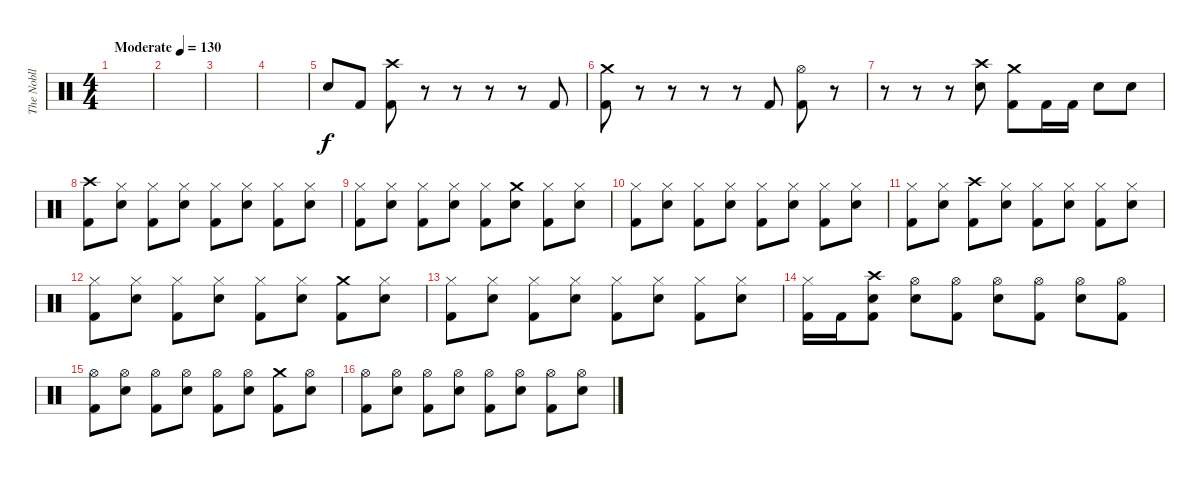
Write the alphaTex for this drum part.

\track ("The Nobll" "The Nobll") {instrument percussion}
\staff {score}
\articulation defaults
\ts (4 4)
\tempo (130 "Moderate")
\clef neutral
\ks c
|
|
|
|
"Snare (hit) 2".8 "Kick (hit) 2".8 ("Crash high (hit)" "Kick (hit) 2").8 r.8 r.8 r.8 r.8 "Kick (hit) 2".8 |
("Crash medium (hit)" "Kick (hit) 2").8 r.8 r.8 r.8 r.8 "Kick (hit) 2".8 ("Hi-Hat (open)" "Kick (hit) 2").8 r.8 |
r.8 r.8 r.8 ("Crash high (hit)" "Snare (hit) 2").8 ("Crash medium (hit)" "Kick (hit) 2").8 "Kick (hit) 2".16 "Kick (hit) 2".16 "Snare (hit) 2".8 "Snare (hit) 2".8 |
("Crash high (hit)" "Kick (hit) 2").8 ("Hi-Hat (closed)" "Snare (hit) 2").8 ("Hi-Hat (closed)" "Kick (hit) 2").8 ("Hi-Hat (closed)" "Snare (hit) 2").8 ("Hi-Hat (closed)" "Kick (hit) 2").8 ("Hi-Hat (closed)" "Snare (hit) 2").8 ("Hi-Hat (closed)" "Kick (hit) 2").8 ("Hi-Hat (closed)" "Snare (hit) 2").8 |
("Hi-Hat (closed)" "Kick (hit) 2").8 ("Hi-Hat (closed)" "Snare (hit) 2").8 ("Hi-Hat (closed)" "Kick (hit) 2").8 ("Hi-Hat (closed)" "Snare (hit) 2").8 ("Hi-Hat (closed)" "Kick (hit) 2").8 ("Crash medium (hit)" "Snare (hit) 2").8 ("Hi-Hat (closed)" "Kick (hit) 2").8 ("Hi-Hat (closed)" "Snare (hit) 2").8 |
("Hi-Hat (closed)" "Kick (hit) 2").8 ("Hi-Hat (closed)" "Snare (hit) 2").8 ("Hi-Hat (closed)" "Kick (hit) 2").8 ("Hi-Hat (closed)" "Snare (hit) 2").8 ("Hi-Hat (closed)" "Kick (hit) 2").8 ("Hi-Hat (closed)" "Snare (hit) 2").8 ("Hi-Hat (closed)" "Kick (hit) 2").8 ("Hi-Hat (closed)" "Snare (hit) 2").8 |
("Hi-Hat (closed)" "Kick (hit) 2").8 ("Hi-Hat (closed)" "Snare (hit) 2").8 ("Crash high (hit)" "Kick (hit) 2").8 ("Hi-Hat (closed)" "Snare (hit) 2").8 ("Hi-Hat (closed)" "Kick (hit) 2").8 ("Hi-Hat (closed)" "Snare (hit) 2").8 ("Hi-Hat (closed)" "Kick (hit) 2").8 ("Hi-Hat (closed)" "Snare (hit) 2").8 |
("Hi-Hat (closed)" "Kick (hit) 2").8 ("Hi-Hat (closed)" "Snare (hit) 2").8 ("Hi-Hat (closed)" "Kick (hit) 2").8 ("Hi-Hat (closed)" "Snare (hit) 2").8 ("Hi-Hat (closed)" "Kick (hit) 2").8 ("Hi-Hat (closed)" "Snare (hit) 2").8 ("Crash medium (hit)" "Kick (hit) 2").8 ("Hi-Hat (closed)" "Snare (hit) 2").8 |
("Hi-Hat (closed)" "Kick (hit) 2").8 ("Hi-Hat (closed)" "Snare (hit) 2").8 ("Hi-Hat (closed)" "Kick (hit) 2").8 ("Hi-Hat (closed)" "Snare (hit) 2").8 ("Hi-Hat (closed)" "Kick (hit) 2").8 ("Hi-Hat (closed)" "Snare (hit) 2").8 ("Hi-Hat (closed)" "Kick (hit) 2").8 ("Hi-Hat (closed)" "Snare (hit) 2").8 |
("Hi-Hat (closed)" "Kick (hit) 2").16 "Kick (hit) 2".16 ("Crash high (hit)" "Snare (hit) 2" "Kick (hit) 2").8 ("Hi-Hat (open)" "Snare (hit) 2").8 ("Hi-Hat (open)" "Kick (hit) 2").8 ("Hi-Hat (open)" "Snare (hit) 2").8 ("Hi-Hat (open)" "Kick (hit) 2").8 ("Hi-Hat (open)" "Snare (hit) 2").8 ("Hi-Hat (open)" "Kick (hit) 2").8 |
("Hi-Hat (open)" "Kick (hit) 2").8 ("Hi-Hat (open)" "Snare (hit) 2").8 ("Hi-Hat (open)" "Kick (hit) 2").8 ("Hi-Hat (open)" "Snare (hit) 2").8 ("Hi-Hat (open)" "Kick (hit) 2").8 ("Hi-Hat (open)" "Snare (hit) 2").8 ("Crash medium (hit)" "Kick (hit) 2").8 ("Hi-Hat (open)" "Snare (hit) 2").8 |
("Hi-Hat (open)" "Kick (hit) 2").8 ("Hi-Hat (open)" "Snare (hit) 2").8 ("Hi-Hat (open)" "Kick (hit) 2").8 ("Hi-Hat (open)" "Snare (hit) 2").8 ("Hi-Hat (open)" "Kick (hit) 2").8 ("Hi-Hat (open)" "Snare (hit) 2").8 ("Hi-Hat (open)" "Kick (hit) 2").8 ("Hi-Hat (open)" "Snare (hit) 2").8
